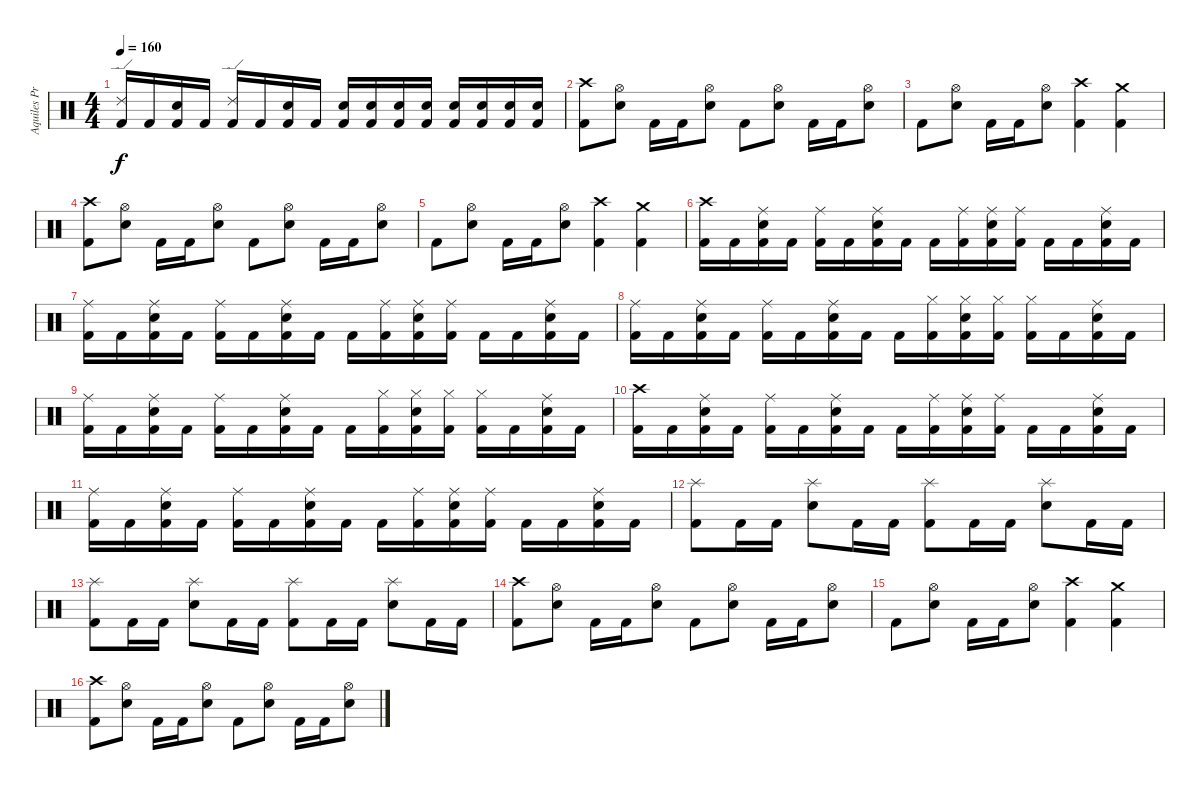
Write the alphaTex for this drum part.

\track ("Aquiles Priester" "Aquiles Pr") {instrument percussion}
\staff {score}
\articulation defaults
\ts (4 4)
\tempo 160
\clef neutral
\ks c
("Ride (edge) 2" "Kick (hit) 2").16{dy f} "Kick (hit) 2".16 ("Electric Snare (hit)" "Kick (hit) 2").16 "Kick (hit) 2".16 ("Ride (edge) 2" "Kick (hit) 2").16 "Kick (hit) 2".16 ("Electric Snare (hit)" "Kick (hit) 2").16 "Kick (hit) 2".16 ("Electric Snare (hit)" "Kick (hit) 2").16 ("Electric Snare (hit)" "Kick (hit) 2").16 ("Electric Snare (hit)" "Kick (hit) 2").16 ("Electric Snare (hit)" "Kick (hit) 2").16 ("Electric Snare (hit)" "Kick (hit) 2").16 ("Electric Snare (hit)" "Kick (hit) 2").16 ("Electric Snare (hit)" "Kick (hit) 2").16 ("Electric Snare (hit)" "Kick (hit) 2").16 |
("Crash high (hit)" "Kick (hit) 2").8 ("Hi-Hat (open)" "Electric Snare (hit)").8 "Kick (hit) 2".16 "Kick (hit) 2".16 ("Hi-Hat (open)" "Electric Snare (hit)").8 "Kick (hit) 2".8 ("Hi-Hat (open)" "Electric Snare (hit)").8 "Kick (hit) 2".16 "Kick (hit) 2".16 ("Hi-Hat (open)" "Electric Snare (hit)").8 |
"Kick (hit) 2".8 ("Hi-Hat (open)" "Electric Snare (hit)").8 "Kick (hit) 2".16 "Kick (hit) 2".16 ("Hi-Hat (open)" "Electric Snare (hit)").8 ("Crash high (hit)" "Kick (hit) 2").4 ("Crash medium (hit)" "Kick (hit) 2").4 |
("Crash high (hit)" "Kick (hit) 2").8 ("Hi-Hat (open)" "Electric Snare (hit)").8 "Kick (hit) 2".16 "Kick (hit) 2".16 ("Hi-Hat (open)" "Electric Snare (hit)").8 "Kick (hit) 2".8 ("Hi-Hat (open)" "Electric Snare (hit)").8 "Kick (hit) 2".16 "Kick (hit) 2".16 ("Hi-Hat (open)" "Electric Snare (hit)").8 |
"Kick (hit) 2".8 ("Hi-Hat (open)" "Electric Snare (hit)").8 "Kick (hit) 2".16 "Kick (hit) 2".16 ("Hi-Hat (open)" "Electric Snare (hit)").8 ("Crash high (hit)" "Kick (hit) 2").4 ("Crash medium (hit)" "Kick (hit) 2").4 |
("Crash high (hit)" "Kick (hit) 2").16 "Kick (hit) 2".16 ("Ride (middle)" "Electric Snare (hit)" "Kick (hit) 2").16 "Kick (hit) 2".16 ("Ride (middle)" "Kick (hit) 2").16 "Kick (hit) 2".16 ("Ride (middle)" "Electric Snare (hit)" "Kick (hit) 2").16 "Kick (hit) 2".16 "Kick (hit) 2".16 ("Ride (middle)" "Kick (hit) 2").16 ("Ride (middle)" "Electric Snare (hit)" "Kick (hit) 2").16 ("Ride (middle)" "Kick (hit) 2").16 "Kick (hit) 2".16 "Kick (hit) 2".16 ("Ride (middle)" "Electric Snare (hit)" "Kick (hit) 2").16 "Kick (hit) 2".16 |
("Ride (middle)" "Kick (hit) 2").16 "Kick (hit) 2".16 ("Ride (middle)" "Electric Snare (hit)" "Kick (hit) 2").16 "Kick (hit) 2".16 ("Ride (middle)" "Kick (hit) 2").16 "Kick (hit) 2".16 ("Ride (middle)" "Electric Snare (hit)" "Kick (hit) 2").16 "Kick (hit) 2".16 "Kick (hit) 2".16 ("Ride (middle)" "Kick (hit) 2").16 ("Ride (middle)" "Electric Snare (hit)" "Kick (hit) 2").16 ("Ride (middle)" "Kick (hit) 2").16 "Kick (hit) 2".16 "Kick (hit) 2".16 ("Ride (middle)" "Electric Snare (hit)" "Kick (hit) 2").16 "Kick (hit) 2".16 |
("Ride (middle)" "Kick (hit) 2").16 "Kick (hit) 2".16 ("Ride (middle)" "Electric Snare (hit)" "Kick (hit) 2").16 "Kick (hit) 2".16 ("Ride (middle)" "Kick (hit) 2").16 "Kick (hit) 2".16 ("Ride (middle)" "Electric Snare (hit)" "Kick (hit) 2").16 "Kick (hit) 2".16 "Kick (hit) 2".16 ("Hi-Hat (closed)" "Kick (hit) 2").16 ("Hi-Hat (closed)" "Electric Snare (hit)" "Kick (hit) 2").16 ("Hi-Hat (closed)" "Kick (hit) 2").16 ("Hi-Hat (closed)" "Kick (hit) 2").16 "Kick (hit) 2".16 ("Ride (middle)" "Electric Snare (hit)" "Kick (hit) 2").16 "Kick (hit) 2".16 |
("Ride (middle)" "Kick (hit) 2").16 "Kick (hit) 2".16 ("Ride (middle)" "Electric Snare (hit)" "Kick (hit) 2").16 "Kick (hit) 2".16 ("Ride (middle)" "Kick (hit) 2").16 "Kick (hit) 2".16 ("Ride (middle)" "Electric Snare (hit)" "Kick (hit) 2").16 "Kick (hit) 2".16 "Kick (hit) 2".16 ("Hi-Hat (closed)" "Kick (hit) 2").16 ("Hi-Hat (closed)" "Electric Snare (hit)" "Kick (hit) 2").16 ("Hi-Hat (closed)" "Kick (hit) 2").16 ("Hi-Hat (closed)" "Kick (hit) 2").16 "Kick (hit) 2".16 ("Ride (middle)" "Electric Snare (hit)" "Kick (hit) 2").16 "Kick (hit) 2".16 |
("Crash high (hit)" "Kick (hit) 2").16 "Kick (hit) 2".16 ("Ride (middle)" "Electric Snare (hit)" "Kick (hit) 2").16 "Kick (hit) 2".16 ("Ride (middle)" "Kick (hit) 2").16 "Kick (hit) 2".16 ("Ride (middle)" "Electric Snare (hit)" "Kick (hit) 2").16 "Kick (hit) 2".16 "Kick (hit) 2".16 ("Ride (middle)" "Kick (hit) 2").16 ("Ride (middle)" "Electric Snare (hit)" "Kick (hit) 2").16 ("Ride (middle)" "Kick (hit) 2").16 "Kick (hit) 2".16 "Kick (hit) 2".16 ("Ride (middle)" "Electric Snare (hit)" "Kick (hit) 2").16 "Kick (hit) 2".16 |
("Ride (middle)" "Kick (hit) 2").16 "Kick (hit) 2".16 ("Ride (middle)" "Electric Snare (hit)" "Kick (hit) 2").16 "Kick (hit) 2".16 ("Ride (middle)" "Kick (hit) 2").16 "Kick (hit) 2".16 ("Ride (middle)" "Electric Snare (hit)" "Kick (hit) 2").16 "Kick (hit) 2".16 "Kick (hit) 2".16 ("Ride (middle)" "Kick (hit) 2").16 ("Ride (middle)" "Electric Snare (hit)" "Kick (hit) 2").16 ("Ride (middle)" "Kick (hit) 2").16 "Kick (hit) 2".16 "Kick (hit) 2".16 ("Ride (middle)" "Electric Snare (hit)" "Kick (hit) 2").16 "Kick (hit) 2".16 |
("Splash (hit)" "Kick (hit) 2").8 "Kick (hit) 2".16 "Kick (hit) 2".16 ("Splash (hit)" "Electric Snare (hit)").8 "Kick (hit) 2".16 "Kick (hit) 2".16 ("Splash (hit)" "Kick (hit) 2").8 "Kick (hit) 2".16 "Kick (hit) 2".16 ("Splash (hit)" "Electric Snare (hit)").8 "Kick (hit) 2".16 "Kick (hit) 2".16 |
("Splash (hit)" "Kick (hit) 2").8 "Kick (hit) 2".16 "Kick (hit) 2".16 ("Splash (hit)" "Electric Snare (hit)").8 "Kick (hit) 2".16 "Kick (hit) 2".16 ("Splash (hit)" "Kick (hit) 2").8 "Kick (hit) 2".16 "Kick (hit) 2".16 ("Splash (hit)" "Electric Snare (hit)").8 "Kick (hit) 2".16 "Kick (hit) 2".16 |
("Crash high (hit)" "Kick (hit) 2").8 ("Hi-Hat (open)" "Electric Snare (hit)").8 "Kick (hit) 2".16 "Kick (hit) 2".16 ("Hi-Hat (open)" "Electric Snare (hit)").8 "Kick (hit) 2".8 ("Hi-Hat (open)" "Electric Snare (hit)").8 "Kick (hit) 2".16 "Kick (hit) 2".16 ("Hi-Hat (open)" "Electric Snare (hit)").8 |
"Kick (hit) 2".8 ("Hi-Hat (open)" "Electric Snare (hit)").8 "Kick (hit) 2".16 "Kick (hit) 2".16 ("Hi-Hat (open)" "Electric Snare (hit)").8 ("Crash high (hit)" "Kick (hit) 2").4 ("Crash medium (hit)" "Kick (hit) 2").4 |
("Crash high (hit)" "Kick (hit) 2").8 ("Hi-Hat (open)" "Electric Snare (hit)").8 "Kick (hit) 2".16 "Kick (hit) 2".16 ("Hi-Hat (open)" "Electric Snare (hit)").8 "Kick (hit) 2".8 ("Hi-Hat (open)" "Electric Snare (hit)").8 "Kick (hit) 2".16 "Kick (hit) 2".16 ("Hi-Hat (open)" "Electric Snare (hit)").8
